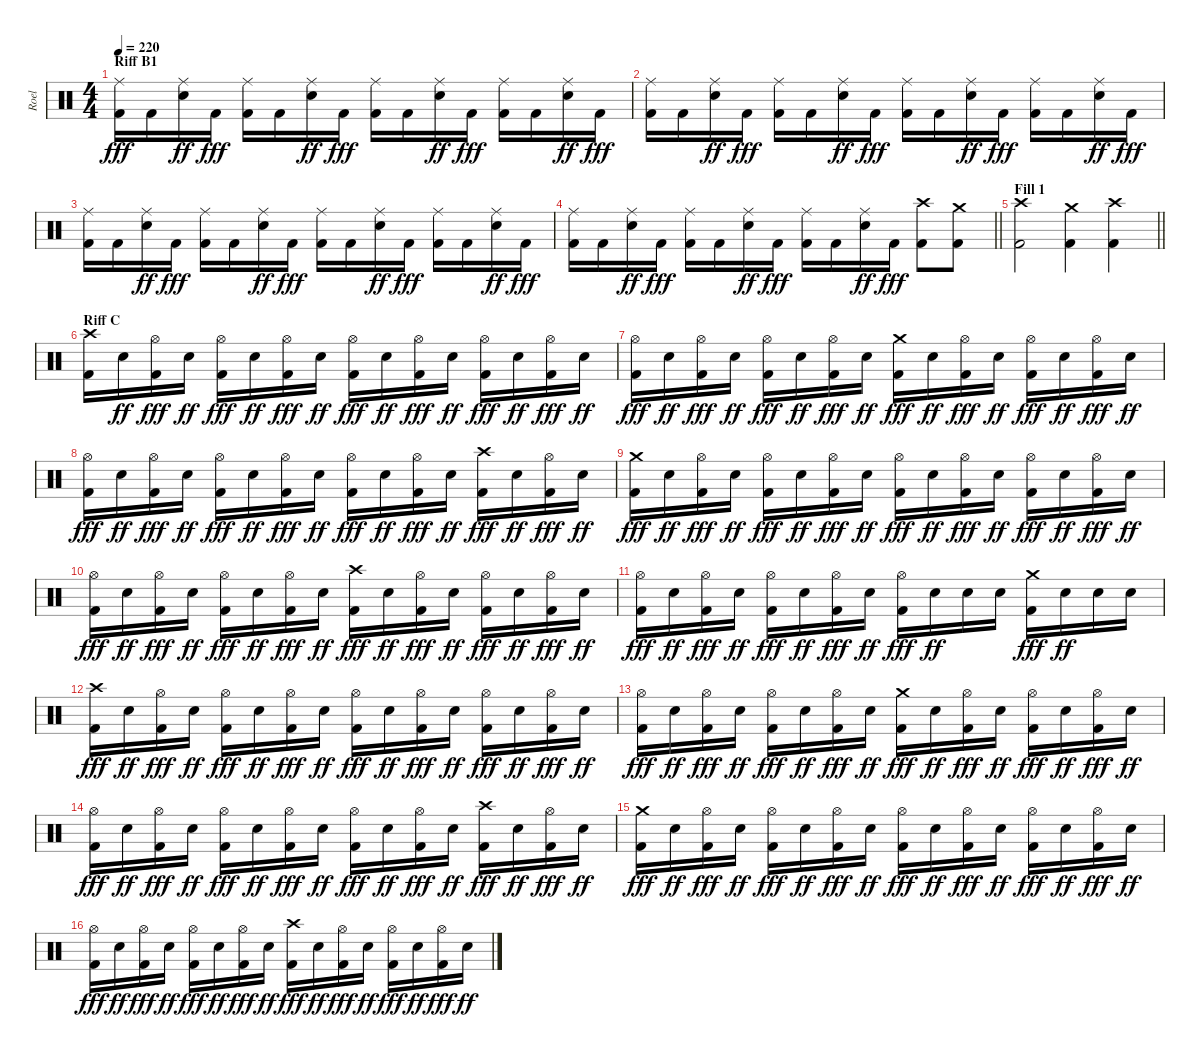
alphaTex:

\track ("Roel" "Roel") {instrument percussion}
\staff {score}
\articulation defaults
\ts (4 4)
\section ("" "Riff B1")
\tempo 220
\clef neutral
\ks c
("Ride (middle)" "Kick (hit) 2").16{dy fff} "Kick (hit) 2".16 ("Ride (middle)" "Snare (hit) 2").16{dy ff} "Kick (hit) 2".16{dy fff} ("Ride (middle)" "Kick (hit) 2").16 "Kick (hit) 2".16 ("Ride (middle)" "Snare (hit) 2").16{dy ff} "Kick (hit) 2".16{dy fff} ("Ride (middle)" "Kick (hit) 2").16 "Kick (hit) 2".16 ("Ride (middle)" "Snare (hit) 2").16{dy ff} "Kick (hit) 2".16{dy fff} ("Ride (middle)" "Kick (hit) 2").16 "Kick (hit) 2".16 ("Ride (middle)" "Snare (hit) 2").16{dy ff} "Kick (hit) 2".16{dy fff} |
("Ride (middle)" "Kick (hit) 2").16 "Kick (hit) 2".16 ("Ride (middle)" "Snare (hit) 2").16{dy ff} "Kick (hit) 2".16{dy fff} ("Ride (middle)" "Kick (hit) 2").16 "Kick (hit) 2".16 ("Ride (middle)" "Snare (hit) 2").16{dy ff} "Kick (hit) 2".16{dy fff} ("Ride (middle)" "Kick (hit) 2").16 "Kick (hit) 2".16 ("Ride (middle)" "Snare (hit) 2").16{dy ff} "Kick (hit) 2".16{dy fff} ("Ride (middle)" "Kick (hit) 2").16 "Kick (hit) 2".16 ("Ride (middle)" "Snare (hit) 2").16{dy ff} "Kick (hit) 2".16{dy fff} |
("Ride (middle)" "Kick (hit) 2").16 "Kick (hit) 2".16 ("Ride (middle)" "Snare (hit) 2").16{dy ff} "Kick (hit) 2".16{dy fff} ("Ride (middle)" "Kick (hit) 2").16 "Kick (hit) 2".16 ("Ride (middle)" "Snare (hit) 2").16{dy ff} "Kick (hit) 2".16{dy fff} ("Ride (middle)" "Kick (hit) 2").16 "Kick (hit) 2".16 ("Ride (middle)" "Snare (hit) 2").16{dy ff} "Kick (hit) 2".16{dy fff} ("Ride (middle)" "Kick (hit) 2").16 "Kick (hit) 2".16 ("Ride (middle)" "Snare (hit) 2").16{dy ff} "Kick (hit) 2".16{dy fff} |
\barLineRight lightlight
("Ride (middle)" "Kick (hit) 2").16 "Kick (hit) 2".16 ("Ride (middle)" "Snare (hit) 2").16{dy ff} "Kick (hit) 2".16{dy fff} ("Ride (middle)" "Kick (hit) 2").16 "Kick (hit) 2".16 ("Ride (middle)" "Snare (hit) 2").16{dy ff} "Kick (hit) 2".16{dy fff} ("Ride (middle)" "Kick (hit) 2").16 "Kick (hit) 2".16 ("Ride (middle)" "Snare (hit) 2").16{dy ff} "Kick (hit) 2".16{dy fff} ("Crash high (hit)" "Kick (hit) 2").8 ("Crash medium (hit)" "Kick (hit) 2").8 |
\section ("" "Fill 1")
\barLineRight lightlight
("Crash high (hit)" "Kick (hit) 2").2 ("Crash medium (hit)" "Kick (hit) 2").4 ("Crash high (hit)" "Kick (hit) 2").4 |
\section ("" "Riff C")
("Crash high (hit)" "Kick (hit) 2").16 "Snare (hit) 2".16{dy ff} ("Hi-Hat (open)" "Kick (hit) 2").16{dy fff} "Snare (hit) 2".16{dy ff} ("Hi-Hat (open)" "Kick (hit) 2").16{dy fff} "Snare (hit) 2".16{dy ff} ("Hi-Hat (open)" "Kick (hit) 2").16{dy fff} "Snare (hit) 2".16{dy ff} ("Hi-Hat (open)" "Kick (hit) 2").16{dy fff} "Snare (hit) 2".16{dy ff} ("Hi-Hat (open)" "Kick (hit) 2").16{dy fff} "Snare (hit) 2".16{dy ff} ("Hi-Hat (open)" "Kick (hit) 2").16{dy fff} "Snare (hit) 2".16{dy ff} ("Hi-Hat (open)" "Kick (hit) 2").16{dy fff} "Snare (hit) 2".16{dy ff} |
("Hi-Hat (open)" "Kick (hit) 2").16{dy fff} "Snare (hit) 2".16{dy ff} ("Hi-Hat (open)" "Kick (hit) 2").16{dy fff} "Snare (hit) 2".16{dy ff} ("Hi-Hat (open)" "Kick (hit) 2").16{dy fff} "Snare (hit) 2".16{dy ff} ("Hi-Hat (open)" "Kick (hit) 2").16{dy fff} "Snare (hit) 2".16{dy ff} ("Crash medium (hit)" "Kick (hit) 2").16{dy fff} "Snare (hit) 2".16{dy ff} ("Hi-Hat (open)" "Kick (hit) 2").16{dy fff} "Snare (hit) 2".16{dy ff} ("Hi-Hat (open)" "Kick (hit) 2").16{dy fff} "Snare (hit) 2".16{dy ff} ("Hi-Hat (open)" "Kick (hit) 2").16{dy fff} "Snare (hit) 2".16{dy ff} |
("Hi-Hat (open)" "Kick (hit) 2").16{dy fff} "Snare (hit) 2".16{dy ff} ("Hi-Hat (open)" "Kick (hit) 2").16{dy fff} "Snare (hit) 2".16{dy ff} ("Hi-Hat (open)" "Kick (hit) 2").16{dy fff} "Snare (hit) 2".16{dy ff} ("Hi-Hat (open)" "Kick (hit) 2").16{dy fff} "Snare (hit) 2".16{dy ff} ("Hi-Hat (open)" "Kick (hit) 2").16{dy fff} "Snare (hit) 2".16{dy ff} ("Hi-Hat (open)" "Kick (hit) 2").16{dy fff} "Snare (hit) 2".16{dy ff} ("Crash high (hit)" "Kick (hit) 2").16{dy fff} "Snare (hit) 2".16{dy ff} ("Hi-Hat (open)" "Kick (hit) 2").16{dy fff} "Snare (hit) 2".16{dy ff} |
("Crash medium (hit)" "Kick (hit) 2").16{dy fff} "Snare (hit) 2".16{dy ff} ("Hi-Hat (open)" "Kick (hit) 2").16{dy fff} "Snare (hit) 2".16{dy ff} ("Hi-Hat (open)" "Kick (hit) 2").16{dy fff} "Snare (hit) 2".16{dy ff} ("Hi-Hat (open)" "Kick (hit) 2").16{dy fff} "Snare (hit) 2".16{dy ff} ("Hi-Hat (open)" "Kick (hit) 2").16{dy fff} "Snare (hit) 2".16{dy ff} ("Hi-Hat (open)" "Kick (hit) 2").16{dy fff} "Snare (hit) 2".16{dy ff} ("Hi-Hat (open)" "Kick (hit) 2").16{dy fff} "Snare (hit) 2".16{dy ff} ("Hi-Hat (open)" "Kick (hit) 2").16{dy fff} "Snare (hit) 2".16{dy ff} |
("Hi-Hat (open)" "Kick (hit) 2").16{dy fff} "Snare (hit) 2".16{dy ff} ("Hi-Hat (open)" "Kick (hit) 2").16{dy fff} "Snare (hit) 2".16{dy ff} ("Hi-Hat (open)" "Kick (hit) 2").16{dy fff} "Snare (hit) 2".16{dy ff} ("Hi-Hat (open)" "Kick (hit) 2").16{dy fff} "Snare (hit) 2".16{dy ff} ("Crash high (hit)" "Kick (hit) 2").16{dy fff} "Snare (hit) 2".16{dy ff} ("Hi-Hat (open)" "Kick (hit) 2").16{dy fff} "Snare (hit) 2".16{dy ff} ("Hi-Hat (open)" "Kick (hit) 2").16{dy fff} "Snare (hit) 2".16{dy ff} ("Hi-Hat (open)" "Kick (hit) 2").16{dy fff} "Snare (hit) 2".16{dy ff} |
("Hi-Hat (open)" "Kick (hit) 2").16{dy fff} "Snare (hit) 2".16{dy ff} ("Hi-Hat (open)" "Kick (hit) 2").16{dy fff} "Snare (hit) 2".16{dy ff} ("Hi-Hat (open)" "Kick (hit) 2").16{dy fff} "Snare (hit) 2".16{dy ff} ("Hi-Hat (open)" "Kick (hit) 2").16{dy fff} "Snare (hit) 2".16{dy ff} ("Hi-Hat (open)" "Kick (hit) 2").16{dy fff} "Snare (hit) 2".16{dy ff} "Snare (hit) 2".16 "Snare (hit) 2".16 ("Crash medium (hit)" "Kick (hit) 2").16{dy fff} "Snare (hit) 2".16{dy ff} "Snare (hit) 2".16 "Snare (hit) 2".16 |
("Crash high (hit)" "Kick (hit) 2").16{dy fff} "Snare (hit) 2".16{dy ff} ("Hi-Hat (open)" "Kick (hit) 2").16{dy fff} "Snare (hit) 2".16{dy ff} ("Hi-Hat (open)" "Kick (hit) 2").16{dy fff} "Snare (hit) 2".16{dy ff} ("Hi-Hat (open)" "Kick (hit) 2").16{dy fff} "Snare (hit) 2".16{dy ff} ("Hi-Hat (open)" "Kick (hit) 2").16{dy fff} "Snare (hit) 2".16{dy ff} ("Hi-Hat (open)" "Kick (hit) 2").16{dy fff} "Snare (hit) 2".16{dy ff} ("Hi-Hat (open)" "Kick (hit) 2").16{dy fff} "Snare (hit) 2".16{dy ff} ("Hi-Hat (open)" "Kick (hit) 2").16{dy fff} "Snare (hit) 2".16{dy ff} |
("Hi-Hat (open)" "Kick (hit) 2").16{dy fff} "Snare (hit) 2".16{dy ff} ("Hi-Hat (open)" "Kick (hit) 2").16{dy fff} "Snare (hit) 2".16{dy ff} ("Hi-Hat (open)" "Kick (hit) 2").16{dy fff} "Snare (hit) 2".16{dy ff} ("Hi-Hat (open)" "Kick (hit) 2").16{dy fff} "Snare (hit) 2".16{dy ff} ("Crash medium (hit)" "Kick (hit) 2").16{dy fff} "Snare (hit) 2".16{dy ff} ("Hi-Hat (open)" "Kick (hit) 2").16{dy fff} "Snare (hit) 2".16{dy ff} ("Hi-Hat (open)" "Kick (hit) 2").16{dy fff} "Snare (hit) 2".16{dy ff} ("Hi-Hat (open)" "Kick (hit) 2").16{dy fff} "Snare (hit) 2".16{dy ff} |
("Hi-Hat (open)" "Kick (hit) 2").16{dy fff} "Snare (hit) 2".16{dy ff} ("Hi-Hat (open)" "Kick (hit) 2").16{dy fff} "Snare (hit) 2".16{dy ff} ("Hi-Hat (open)" "Kick (hit) 2").16{dy fff} "Snare (hit) 2".16{dy ff} ("Hi-Hat (open)" "Kick (hit) 2").16{dy fff} "Snare (hit) 2".16{dy ff} ("Hi-Hat (open)" "Kick (hit) 2").16{dy fff} "Snare (hit) 2".16{dy ff} ("Hi-Hat (open)" "Kick (hit) 2").16{dy fff} "Snare (hit) 2".16{dy ff} ("Crash high (hit)" "Kick (hit) 2").16{dy fff} "Snare (hit) 2".16{dy ff} ("Hi-Hat (open)" "Kick (hit) 2").16{dy fff} "Snare (hit) 2".16{dy ff} |
("Crash medium (hit)" "Kick (hit) 2").16{dy fff} "Snare (hit) 2".16{dy ff} ("Hi-Hat (open)" "Kick (hit) 2").16{dy fff} "Snare (hit) 2".16{dy ff} ("Hi-Hat (open)" "Kick (hit) 2").16{dy fff} "Snare (hit) 2".16{dy ff} ("Hi-Hat (open)" "Kick (hit) 2").16{dy fff} "Snare (hit) 2".16{dy ff} ("Hi-Hat (open)" "Kick (hit) 2").16{dy fff} "Snare (hit) 2".16{dy ff} ("Hi-Hat (open)" "Kick (hit) 2").16{dy fff} "Snare (hit) 2".16{dy ff} ("Hi-Hat (open)" "Kick (hit) 2").16{dy fff} "Snare (hit) 2".16{dy ff} ("Hi-Hat (open)" "Kick (hit) 2").16{dy fff} "Snare (hit) 2".16{dy ff} |
("Hi-Hat (open)" "Kick (hit) 2").16{dy fff} "Snare (hit) 2".16{dy ff} ("Hi-Hat (open)" "Kick (hit) 2").16{dy fff} "Snare (hit) 2".16{dy ff} ("Hi-Hat (open)" "Kick (hit) 2").16{dy fff} "Snare (hit) 2".16{dy ff} ("Hi-Hat (open)" "Kick (hit) 2").16{dy fff} "Snare (hit) 2".16{dy ff} ("Crash high (hit)" "Kick (hit) 2").16{dy fff} "Snare (hit) 2".16{dy ff} ("Hi-Hat (open)" "Kick (hit) 2").16{dy fff} "Snare (hit) 2".16{dy ff} ("Hi-Hat (open)" "Kick (hit) 2").16{dy fff} "Snare (hit) 2".16{dy ff} ("Hi-Hat (open)" "Kick (hit) 2").16{dy fff} "Snare (hit) 2".16{dy ff}
